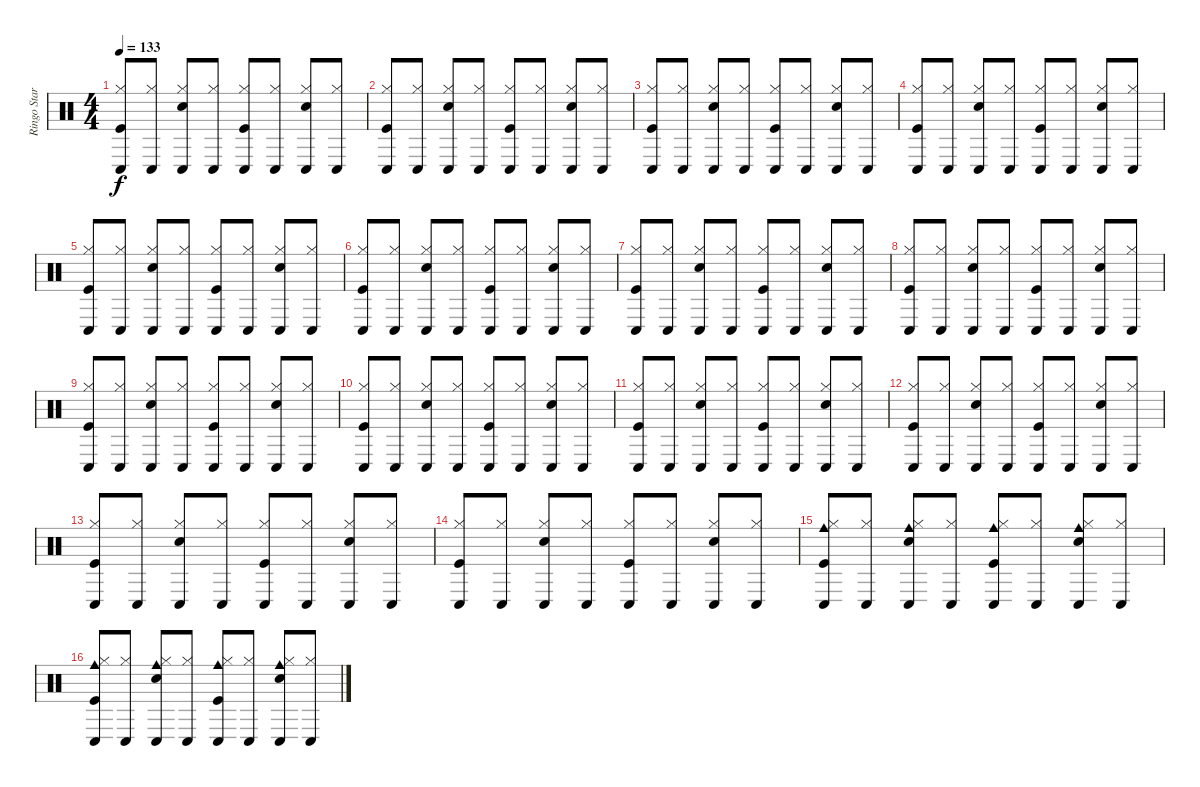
\track ("Ringo Starr - Drums" "Ringo Star") {instrument percussion}
\staff {score}
\articulation defaults
\ts (4 4)
\tempo 133
\clef neutral
\ks c
("Conga low (hit)" "Hi-Hat (closed)" "Kick (hit)").8{dy f} ("Conga low (hit)" "Hi-Hat (closed)").8 ("Conga low (hit)" "Hi-Hat (closed)" "Snare (hit) 2").8 ("Conga low (hit)" "Hi-Hat (closed)").8 ("Conga low (hit)" "Hi-Hat (closed)" "Kick (hit)").8 ("Conga low (hit)" "Hi-Hat (closed)").8 ("Conga low (hit)" "Hi-Hat (closed)" "Snare (hit) 2").8 ("Conga low (hit)" "Hi-Hat (closed)").8 |
("Kick (hit)" "Hi-Hat (closed)" "Conga low (hit)").8 ("Conga low (hit)" "Hi-Hat (closed)").8 ("Conga low (hit)" "Hi-Hat (closed)" "Snare (hit) 2").8 ("Conga low (hit)" "Hi-Hat (closed)").8 ("Conga low (hit)" "Hi-Hat (closed)" "Kick (hit)").8 ("Conga low (hit)" "Hi-Hat (closed)").8 ("Conga low (hit)" "Hi-Hat (closed)" "Snare (hit) 2").8 ("Conga low (hit)" "Hi-Hat (closed)").8 |
("Kick (hit)" "Hi-Hat (closed)" "Conga low (hit)").8 ("Conga low (hit)" "Hi-Hat (closed)").8 ("Conga low (hit)" "Hi-Hat (closed)" "Snare (hit) 2").8 ("Conga low (hit)" "Hi-Hat (closed)").8 ("Conga low (hit)" "Hi-Hat (closed)" "Kick (hit)").8 ("Conga low (hit)" "Hi-Hat (closed)").8 ("Conga low (hit)" "Hi-Hat (closed)" "Snare (hit) 2").8 ("Conga low (hit)" "Hi-Hat (closed)").8 |
("Kick (hit)" "Hi-Hat (closed)" "Conga low (hit)").8 ("Conga low (hit)" "Hi-Hat (closed)").8 ("Conga low (hit)" "Hi-Hat (closed)" "Snare (hit) 2").8 ("Conga low (hit)" "Hi-Hat (closed)").8 ("Conga low (hit)" "Hi-Hat (closed)" "Kick (hit)").8 ("Conga low (hit)" "Hi-Hat (closed)").8 ("Conga low (hit)" "Hi-Hat (closed)" "Snare (hit) 2").8 ("Conga low (hit)" "Hi-Hat (closed)").8 |
("Kick (hit)" "Hi-Hat (closed)" "Conga low (hit)").8 ("Conga low (hit)" "Hi-Hat (closed)").8 ("Conga low (hit)" "Hi-Hat (closed)" "Snare (hit) 2").8 ("Conga low (hit)" "Hi-Hat (closed)").8 ("Conga low (hit)" "Hi-Hat (closed)" "Kick (hit)").8 ("Conga low (hit)" "Hi-Hat (closed)").8 ("Conga low (hit)" "Hi-Hat (closed)" "Snare (hit) 2").8 ("Conga low (hit)" "Hi-Hat (closed)").8 |
("Kick (hit)" "Hi-Hat (closed)" "Conga low (hit)").8 ("Conga low (hit)" "Hi-Hat (closed)").8 ("Conga low (hit)" "Hi-Hat (closed)" "Snare (hit) 2").8 ("Conga low (hit)" "Hi-Hat (closed)").8 ("Conga low (hit)" "Hi-Hat (closed)" "Kick (hit)").8 ("Conga low (hit)" "Hi-Hat (closed)").8 ("Conga low (hit)" "Hi-Hat (closed)" "Snare (hit) 2").8 ("Conga low (hit)" "Hi-Hat (closed)").8 |
("Kick (hit)" "Hi-Hat (closed)" "Conga low (hit)").8 ("Conga low (hit)" "Hi-Hat (closed)").8 ("Conga low (hit)" "Hi-Hat (closed)" "Snare (hit) 2").8 ("Conga low (hit)" "Hi-Hat (closed)").8 ("Conga low (hit)" "Hi-Hat (closed)" "Kick (hit)").8 ("Conga low (hit)" "Hi-Hat (closed)").8 ("Conga low (hit)" "Hi-Hat (closed)" "Snare (hit) 2").8 ("Conga low (hit)" "Hi-Hat (closed)").8 |
("Kick (hit)" "Hi-Hat (closed)" "Conga low (hit)").8 ("Conga low (hit)" "Hi-Hat (closed)").8 ("Conga low (hit)" "Hi-Hat (closed)" "Snare (hit) 2").8 ("Conga low (hit)" "Hi-Hat (closed)").8 ("Conga low (hit)" "Hi-Hat (closed)" "Kick (hit)").8 ("Conga low (hit)" "Hi-Hat (closed)").8 ("Conga low (hit)" "Hi-Hat (closed)" "Snare (hit) 2").8 ("Conga low (hit)" "Hi-Hat (closed)").8 |
("Conga low (hit)" "Hi-Hat (closed)" "Kick (hit)").8 ("Conga low (hit)" "Hi-Hat (closed)").8 ("Conga low (hit)" "Hi-Hat (closed)" "Snare (hit) 2").8 ("Conga low (hit)" "Hi-Hat (closed)").8 ("Conga low (hit)" "Hi-Hat (closed)" "Kick (hit)").8 ("Conga low (hit)" "Hi-Hat (closed)").8 ("Conga low (hit)" "Hi-Hat (closed)" "Snare (hit) 2").8 ("Conga low (hit)" "Hi-Hat (closed)").8 |
("Conga low (hit)" "Hi-Hat (closed)" "Kick (hit)").8 ("Conga low (hit)" "Hi-Hat (closed)").8 ("Conga low (hit)" "Hi-Hat (closed)" "Snare (hit) 2").8 ("Conga low (hit)" "Hi-Hat (closed)").8 ("Conga low (hit)" "Hi-Hat (closed)" "Kick (hit)").8 ("Conga low (hit)" "Hi-Hat (closed)").8 ("Conga low (hit)" "Hi-Hat (closed)" "Snare (hit) 2").8 ("Conga low (hit)" "Hi-Hat (closed)").8 |
("Conga low (hit)" "Hi-Hat (closed)" "Kick (hit)").8 ("Conga low (hit)" "Hi-Hat (closed)").8 ("Conga low (hit)" "Hi-Hat (closed)" "Snare (hit) 2").8 ("Conga low (hit)" "Hi-Hat (closed)").8 ("Conga low (hit)" "Hi-Hat (closed)" "Kick (hit)").8 ("Conga low (hit)" "Hi-Hat (closed)").8 ("Conga low (hit)" "Hi-Hat (closed)" "Snare (hit) 2").8 ("Conga low (hit)" "Hi-Hat (closed)").8 |
("Conga low (hit)" "Hi-Hat (closed)" "Kick (hit)").8 ("Conga low (hit)" "Hi-Hat (closed)").8 ("Conga low (hit)" "Hi-Hat (closed)" "Snare (hit) 2").8 ("Conga low (hit)" "Hi-Hat (closed)").8 ("Conga low (hit)" "Hi-Hat (closed)" "Kick (hit)").8 ("Conga low (hit)" "Hi-Hat (closed)").8 ("Conga low (hit)" "Hi-Hat (closed)" "Snare (hit) 2").8 ("Conga low (hit)" "Hi-Hat (closed)").8 |
("Kick (hit)" "Hi-Hat (closed)" "Conga low (hit)").8 ("Conga low (hit)" "Hi-Hat (closed)").8 ("Conga low (hit)" "Hi-Hat (closed)" "Snare (hit) 2").8 ("Conga low (hit)" "Hi-Hat (closed)").8 ("Conga low (hit)" "Hi-Hat (closed)" "Kick (hit)").8 ("Conga low (hit)" "Hi-Hat (closed)").8 ("Conga low (hit)" "Hi-Hat (closed)" "Snare (hit) 2").8 ("Conga low (hit)" "Hi-Hat (closed)").8 |
("Conga low (hit)" "Hi-Hat (closed)" "Kick (hit)").8 ("Conga low (hit)" "Hi-Hat (closed)").8 ("Conga low (hit)" "Hi-Hat (closed)" "Snare (hit) 2").8 ("Conga low (hit)" "Hi-Hat (closed)").8 ("Conga low (hit)" "Hi-Hat (closed)" "Kick (hit)").8 ("Conga low (hit)" "Hi-Hat (closed)").8 ("Conga low (hit)" "Hi-Hat (closed)" "Snare (hit) 2").8 ("Conga low (hit)" "Hi-Hat (closed)").8 |
("Kick (hit)" "Hi-Hat (closed)" "Conga low (hit)" "Cowbell medium (hit)").8 ("Conga low (hit)" "Hi-Hat (closed)").8 ("Conga low (hit)" "Hi-Hat (closed)" "Snare (hit) 2" "Cowbell medium (hit)").8 ("Conga low (hit)" "Hi-Hat (closed)").8 ("Conga low (hit)" "Hi-Hat (closed)" "Kick (hit)" "Cowbell medium (hit)").8 ("Conga low (hit)" "Hi-Hat (closed)").8 ("Conga low (hit)" "Hi-Hat (closed)" "Snare (hit) 2" "Cowbell medium (hit)").8 ("Conga low (hit)" "Hi-Hat (closed)").8 |
("Cowbell medium (hit)" "Conga low (hit)" "Hi-Hat (closed)" "Kick (hit)").8 ("Conga low (hit)" "Hi-Hat (closed)").8 ("Conga low (hit)" "Hi-Hat (closed)" "Snare (hit) 2" "Cowbell medium (hit)").8 ("Conga low (hit)" "Hi-Hat (closed)").8 ("Conga low (hit)" "Hi-Hat (closed)" "Kick (hit)" "Cowbell medium (hit)").8 ("Conga low (hit)" "Hi-Hat (closed)").8 ("Conga low (hit)" "Hi-Hat (closed)" "Snare (hit) 2" "Cowbell medium (hit)").8 ("Conga low (hit)" "Hi-Hat (closed)").8
